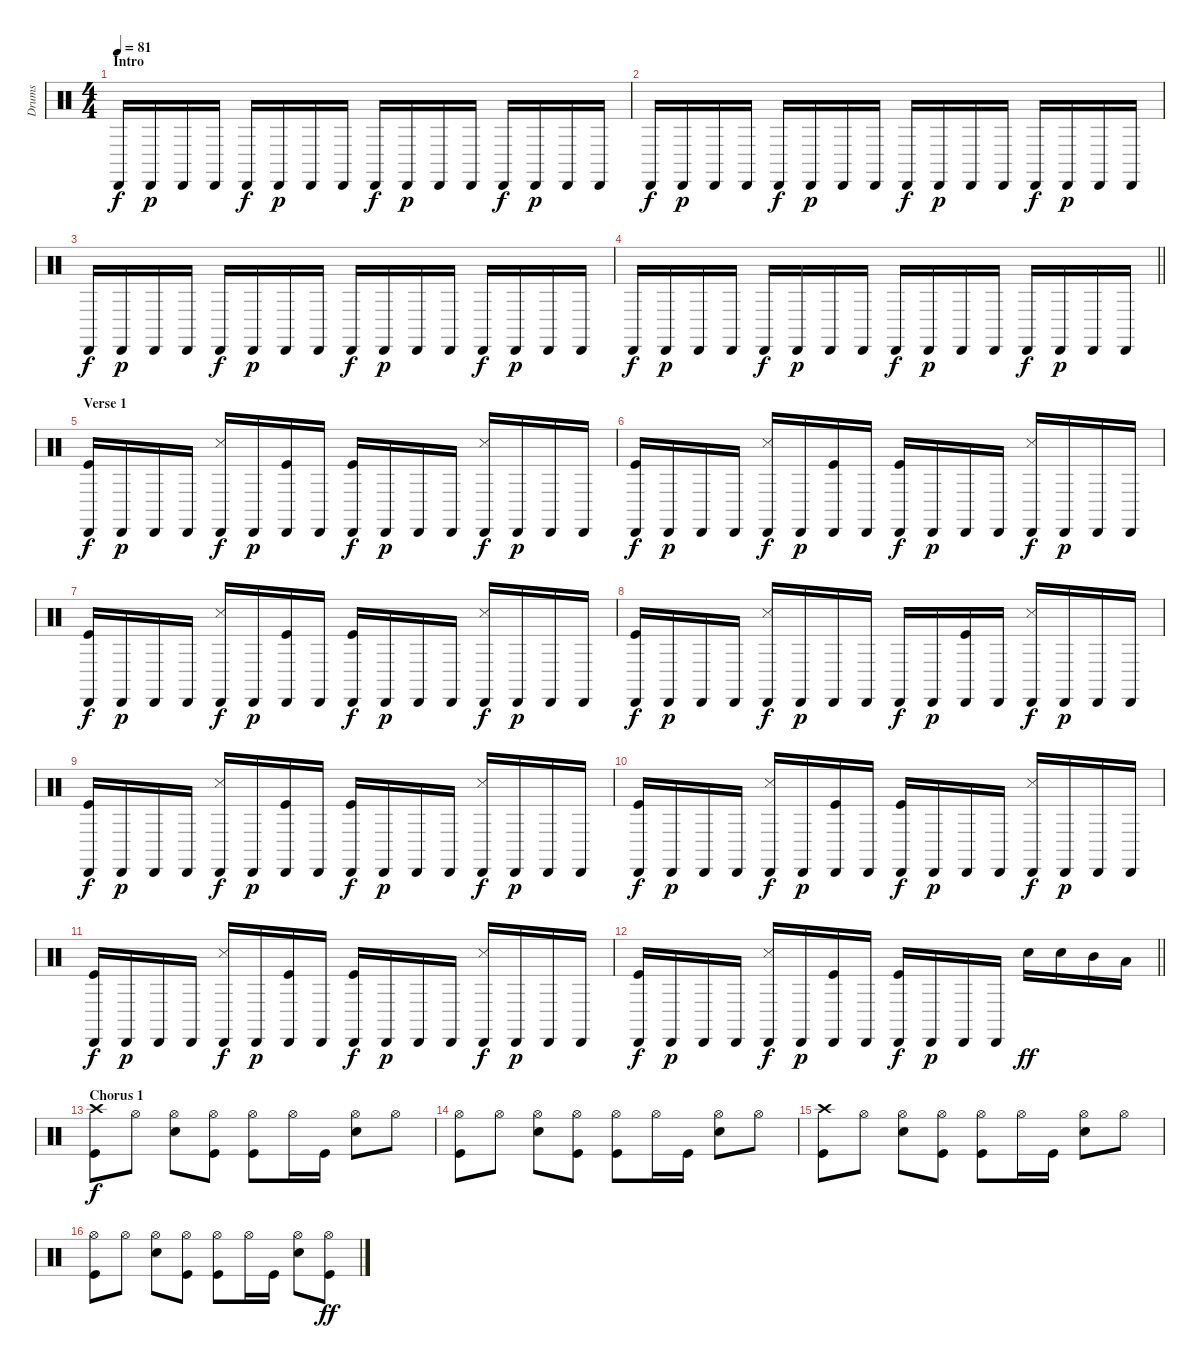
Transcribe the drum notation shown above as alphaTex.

\track ("Drums" "Drums") {instrument percussion}
\staff {score}
\articulation defaults
\ts (4 4)
\section ("" "Intro")
\tempo 81
\clef neutral
\ks c "Cabasa (hit)".16{dy f} "Cabasa (hit)".16{dy p} "Cabasa (hit)".16 "Cabasa (hit)".16 "Cabasa (hit)".16{dy f} "Cabasa (hit)".16{dy p} "Cabasa (hit)".16 "Cabasa (hit)".16 "Cabasa (hit)".16{dy f} "Cabasa (hit)".16{dy p} "Cabasa (hit)".16 "Cabasa (hit)".16 "Cabasa (hit)".16{dy f} "Cabasa (hit)".16{dy p} "Cabasa (hit)".16 "Cabasa (hit)".16
|
"Cabasa (hit)".16{dy f} "Cabasa (hit)".16{dy p} "Cabasa (hit)".16 "Cabasa (hit)".16 "Cabasa (hit)".16{dy f} "Cabasa (hit)".16{dy p} "Cabasa (hit)".16 "Cabasa (hit)".16 "Cabasa (hit)".16{dy f} "Cabasa (hit)".16{dy p} "Cabasa (hit)".16 "Cabasa (hit)".16 "Cabasa (hit)".16{dy f} "Cabasa (hit)".16{dy p} "Cabasa (hit)".16 "Cabasa (hit)".16 |
"Cabasa (hit)".16{dy f} "Cabasa (hit)".16{dy p} "Cabasa (hit)".16 "Cabasa (hit)".16 "Cabasa (hit)".16{dy f} "Cabasa (hit)".16{dy p} "Cabasa (hit)".16 "Cabasa (hit)".16 "Cabasa (hit)".16{dy f} "Cabasa (hit)".16{dy p} "Cabasa (hit)".16 "Cabasa (hit)".16 "Cabasa (hit)".16{dy f} "Cabasa (hit)".16{dy p} "Cabasa (hit)".16 "Cabasa (hit)".16 |
\barLineRight lightlight "Cabasa (hit)".16{dy f} "Cabasa (hit)".16{dy p} "Cabasa (hit)".16 "Cabasa (hit)".16 "Cabasa (hit)".16{dy f} "Cabasa (hit)".16{dy p} "Cabasa (hit)".16 "Cabasa (hit)".16 "Cabasa (hit)".16{dy f} "Cabasa (hit)".16{dy p} "Cabasa (hit)".16 "Cabasa (hit)".16 "Cabasa (hit)".16{dy f} "Cabasa (hit)".16{dy p} "Cabasa (hit)".16 "Cabasa (hit)".16
|
\section ("" "Verse 1")
("Cabasa (hit)" "Kick (hit)").16{dy f} "Cabasa (hit)".16{dy p} "Cabasa (hit)".16 "Cabasa (hit)".16 ("Cabasa (hit)" "Snare (side stick) 3").16{dy f} "Cabasa (hit)".16{dy p} ("Cabasa (hit)" "Kick (hit)").16 "Cabasa (hit)".16 ("Cabasa (hit)" "Kick (hit)").16{dy f} "Cabasa (hit)".16{dy p} "Cabasa (hit)".16 "Cabasa (hit)".16 ("Cabasa (hit)" "Snare (side stick) 3").16{dy f} "Cabasa (hit)".16{dy p} "Cabasa (hit)".16 "Cabasa (hit)".16 |
("Cabasa (hit)" "Kick (hit)").16{dy f} "Cabasa (hit)".16{dy p} "Cabasa (hit)".16 "Cabasa (hit)".16 ("Cabasa (hit)" "Snare (side stick) 3").16{dy f} "Cabasa (hit)".16{dy p} ("Cabasa (hit)" "Kick (hit)").16 "Cabasa (hit)".16 ("Cabasa (hit)" "Kick (hit)").16{dy f} "Cabasa (hit)".16{dy p} "Cabasa (hit)".16 "Cabasa (hit)".16 ("Cabasa (hit)" "Snare (side stick) 3").16{dy f} "Cabasa (hit)".16{dy p} "Cabasa (hit)".16 "Cabasa (hit)".16 |
("Cabasa (hit)" "Kick (hit)").16{dy f} "Cabasa (hit)".16{dy p} "Cabasa (hit)".16 "Cabasa (hit)".16 ("Cabasa (hit)" "Snare (side stick) 3").16{dy f} "Cabasa (hit)".16{dy p} ("Cabasa (hit)" "Kick (hit)").16 "Cabasa (hit)".16 ("Cabasa (hit)" "Kick (hit)").16{dy f} "Cabasa (hit)".16{dy p} "Cabasa (hit)".16 "Cabasa (hit)".16 ("Cabasa (hit)" "Snare (side stick) 3").16{dy f} "Cabasa (hit)".16{dy p} "Cabasa (hit)".16 "Cabasa (hit)".16 |
("Cabasa (hit)" "Kick (hit)").16{dy f} "Cabasa (hit)".16{dy p} "Cabasa (hit)".16 "Cabasa (hit)".16 ("Cabasa (hit)" "Snare (side stick) 3").16{dy f} "Cabasa (hit)".16{dy p} "Cabasa (hit)".16 "Cabasa (hit)".16 "Cabasa (hit)".16{dy f} "Cabasa (hit)".16{dy p} ("Cabasa (hit)" "Kick (hit)").16 "Cabasa (hit)".16 ("Cabasa (hit)" "Snare (side stick) 3").16{dy f} "Cabasa (hit)".16{dy p} "Cabasa (hit)".16 "Cabasa (hit)".16 |
("Cabasa (hit)" "Kick (hit)").16{dy f} "Cabasa (hit)".16{dy p} "Cabasa (hit)".16 "Cabasa (hit)".16 ("Cabasa (hit)" "Snare (side stick) 3").16{dy f} "Cabasa (hit)".16{dy p} ("Cabasa (hit)" "Kick (hit)").16 "Cabasa (hit)".16 ("Cabasa (hit)" "Kick (hit)").16{dy f} "Cabasa (hit)".16{dy p} "Cabasa (hit)".16 "Cabasa (hit)".16 ("Cabasa (hit)" "Snare (side stick) 3").16{dy f} "Cabasa (hit)".16{dy p} "Cabasa (hit)".16 "Cabasa (hit)".16 |
("Cabasa (hit)" "Kick (hit)").16{dy f} "Cabasa (hit)".16{dy p} "Cabasa (hit)".16 "Cabasa (hit)".16 ("Cabasa (hit)" "Snare (side stick) 3").16{dy f} "Cabasa (hit)".16{dy p} ("Cabasa (hit)" "Kick (hit)").16 "Cabasa (hit)".16 ("Cabasa (hit)" "Kick (hit)").16{dy f} "Cabasa (hit)".16{dy p} "Cabasa (hit)".16 "Cabasa (hit)".16 ("Cabasa (hit)" "Snare (side stick) 3").16{dy f} "Cabasa (hit)".16{dy p} "Cabasa (hit)".16 "Cabasa (hit)".16 |
("Cabasa (hit)" "Kick (hit)").16{dy f} "Cabasa (hit)".16{dy p} "Cabasa (hit)".16 "Cabasa (hit)".16 ("Cabasa (hit)" "Snare (side stick) 3").16{dy f} "Cabasa (hit)".16{dy p} ("Cabasa (hit)" "Kick (hit)").16 "Cabasa (hit)".16 ("Cabasa (hit)" "Kick (hit)").16{dy f} "Cabasa (hit)".16{dy p} "Cabasa (hit)".16 "Cabasa (hit)".16 ("Cabasa (hit)" "Snare (side stick) 3").16{dy f} "Cabasa (hit)".16{dy p} "Cabasa (hit)".16 "Cabasa (hit)".16 |
\barLineRight lightlight
("Cabasa (hit)" "Kick (hit)").16{dy f} "Cabasa (hit)".16{dy p} "Cabasa (hit)".16 "Cabasa (hit)".16 ("Cabasa (hit)" "Snare (side stick) 3").16{dy f} "Cabasa (hit)".16{dy p} ("Cabasa (hit)" "Kick (hit)").16 "Cabasa (hit)".16 ("Cabasa (hit)" "Kick (hit)").16{dy f} "Cabasa (hit)".16{dy p} "Cabasa (hit)".16 "Cabasa (hit)".16 "Snare (hit) 2".16{dy ff} "Snare (hit) 2".16 "Mid Tom (hit)".16 "Low Tom (hit)".16 |
\section ("" "Chorus 1")
("Crash high (hit)" "Kick (hit)").8{dy f} "Hi-Hat (open)".8 ("Hi-Hat (open)" "Snare (hit) 2").8 ("Hi-Hat (open)" "Kick (hit)").8 ("Hi-Hat (open)" "Kick (hit)").8 "Hi-Hat (open)".16 "Kick (hit)".16 ("Hi-Hat (open)" "Snare (hit) 2").8 "Hi-Hat (open)".8 |
("Hi-Hat (open)" "Kick (hit)").8 "Hi-Hat (open)".8 ("Hi-Hat (open)" "Snare (hit) 2").8 ("Hi-Hat (open)" "Kick (hit)").8 ("Hi-Hat (open)" "Kick (hit)").8 "Hi-Hat (open)".16 "Kick (hit)".16 ("Hi-Hat (open)" "Snare (hit) 2").8 "Hi-Hat (open)".8 |
("Crash high (hit)" "Kick (hit)").8 "Hi-Hat (open)".8 ("Hi-Hat (open)" "Snare (hit) 2").8 ("Hi-Hat (open)" "Kick (hit)").8 ("Hi-Hat (open)" "Kick (hit)").8 "Hi-Hat (open)".16 "Kick (hit)".16 ("Hi-Hat (open)" "Snare (hit) 2").8 "Hi-Hat (open)".8 |
("Hi-Hat (open)" "Kick (hit)").8 "Hi-Hat (open)".8 ("Hi-Hat (open)" "Snare (hit) 2").8 ("Hi-Hat (open)" "Kick (hit)").8 ("Hi-Hat (open)" "Kick (hit)").8 "Hi-Hat (open)".16 "Kick (hit)".16 ("Hi-Hat (open)" "Snare (hit) 2").8 ("Hi-Hat (open)" "Kick (hit)").8{dy ff}
